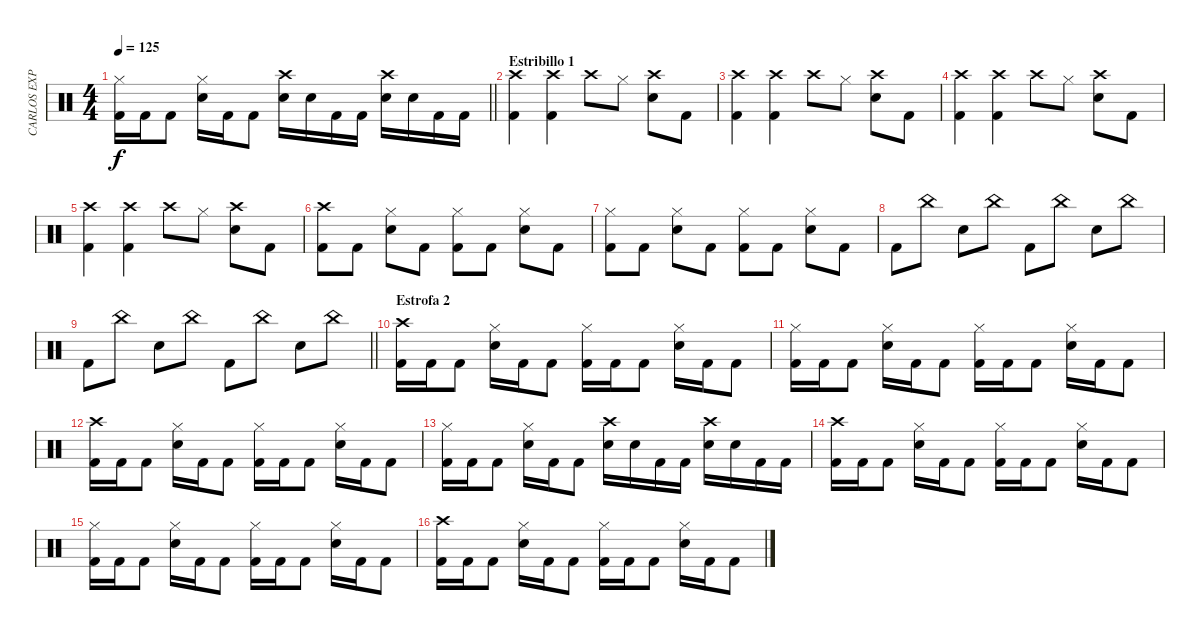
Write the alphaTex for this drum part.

\track ("CARLOS EXPÓSITO" "CARLOS EXP") {instrument percussion}
\staff {score}
\articulation defaults
\ts (4 4)
\tempo 125
\clef neutral
\barLineRight lightlight
\ks c
("Kick (hit) 2" "Hi-Hat (closed)").16{dy f} "Kick (hit) 2".16 "Kick (hit) 2".8 ("Snare (hit) 2" "Hi-Hat (closed)").16 "Kick (hit) 2".16 "Kick (hit) 2".8 ("Snare (hit) 2" "Crash high (hit)").16 "Snare (hit) 2".16 "Kick (hit) 2".16 "Kick (hit) 2".16 ("Snare (hit) 2" "Crash high (hit)").16 "Snare (hit) 2".16 "Kick (hit) 2".16 "Kick (hit) 2".16 |
\section ("" "Estribillo 1")
("Crash high (hit)" "Kick (hit) 2").4 ("Kick (hit) 2" "Crash high (hit)").4 "Crash high (hit)".8 "Hi-Hat (closed)".8 ("Crash high (hit)" "Snare (hit) 2").8 "Kick (hit) 2".8 |
("Crash high (hit)" "Kick (hit) 2").4 ("Kick (hit) 2" "Crash high (hit)").4 "Crash high (hit)".8 "Hi-Hat (closed)".8 ("Crash high (hit)" "Snare (hit) 2").8 "Kick (hit) 2".8 |
("Crash high (hit)" "Kick (hit) 2").4 ("Kick (hit) 2" "Crash high (hit)").4 "Crash high (hit)".8 "Hi-Hat (closed)".8 ("Crash high (hit)" "Snare (hit) 2").8 "Kick (hit) 2".8 |
("Crash high (hit)" "Kick (hit) 2").4 ("Kick (hit) 2" "Crash high (hit)").4 "Crash high (hit)".8 "Hi-Hat (closed)".8 ("Crash high (hit)" "Snare (hit) 2").8 "Kick (hit) 2".8 |
("Crash high (hit)" "Kick (hit) 2").8 "Kick (hit) 2".8 ("Hi-Hat (closed)" "Snare (hit) 2").8 "Kick (hit) 2".8 ("Hi-Hat (closed)" "Kick (hit) 2").8 "Kick (hit) 2".8 ("Hi-Hat (closed)" "Snare (hit) 2").8 "Kick (hit) 2".8 |
("Hi-Hat (closed)" "Kick (hit) 2").8 "Kick (hit) 2".8 ("Hi-Hat (closed)" "Snare (hit) 2").8 "Kick (hit) 2".8 ("Hi-Hat (closed)" "Kick (hit) 2").8 "Kick (hit) 2".8 ("Hi-Hat (closed)" "Snare (hit) 2").8 "Kick (hit) 2".8 |
"Kick (hit) 2".8 "China (hit)".8 "Snare (hit) 2".8 "China (hit)".8 "Kick (hit) 2".8 "China (hit)".8 "Snare (hit) 2".8 "China (hit)".8 |
\barLineRight lightlight "Kick (hit) 2".8 "China (hit)".8 "Snare (hit) 2".8 "China (hit)".8 "Kick (hit) 2".8 "China (hit)".8 "Snare (hit) 2".8 "China (hit)".8
|
\section ("" "Estrofa 2")
("Kick (hit) 2" "Crash high (hit)").16 "Kick (hit) 2".16 "Kick (hit) 2".8 ("Snare (hit) 2" "Hi-Hat (closed)").16 "Kick (hit) 2".16 "Kick (hit) 2".8 ("Kick (hit) 2" "Hi-Hat (closed)").16 "Kick (hit) 2".16 "Kick (hit) 2".8 ("Snare (hit) 2" "Hi-Hat (closed)").16 "Kick (hit) 2".16 "Kick (hit) 2".8 |
("Kick (hit) 2" "Hi-Hat (closed)").16 "Kick (hit) 2".16 "Kick (hit) 2".8 ("Snare (hit) 2" "Hi-Hat (closed)").16 "Kick (hit) 2".16 "Kick (hit) 2".8 ("Kick (hit) 2" "Hi-Hat (closed)").16 "Kick (hit) 2".16 "Kick (hit) 2".8 ("Snare (hit) 2" "Hi-Hat (closed)").16 "Kick (hit) 2".16 "Kick (hit) 2".8 |
("Kick (hit) 2" "Crash high (hit)").16 "Kick (hit) 2".16 "Kick (hit) 2".8 ("Snare (hit) 2" "Hi-Hat (closed)").16 "Kick (hit) 2".16 "Kick (hit) 2".8 ("Kick (hit) 2" "Hi-Hat (closed)").16 "Kick (hit) 2".16 "Kick (hit) 2".8 ("Snare (hit) 2" "Hi-Hat (closed)").16 "Kick (hit) 2".16 "Kick (hit) 2".8 |
("Kick (hit) 2" "Hi-Hat (closed)").16 "Kick (hit) 2".16 "Kick (hit) 2".8 ("Snare (hit) 2" "Hi-Hat (closed)").16 "Kick (hit) 2".16 "Kick (hit) 2".8 ("Snare (hit) 2" "Crash high (hit)").16 "Snare (hit) 2".16 "Kick (hit) 2".16 "Kick (hit) 2".16 ("Snare (hit) 2" "Crash high (hit)").16 "Snare (hit) 2".16 "Kick (hit) 2".16 "Kick (hit) 2".16 |
("Kick (hit) 2" "Crash high (hit)").16 "Kick (hit) 2".16 "Kick (hit) 2".8 ("Snare (hit) 2" "Hi-Hat (closed)").16 "Kick (hit) 2".16 "Kick (hit) 2".8 ("Kick (hit) 2" "Hi-Hat (closed)").16 "Kick (hit) 2".16 "Kick (hit) 2".8 ("Snare (hit) 2" "Hi-Hat (closed)").16 "Kick (hit) 2".16 "Kick (hit) 2".8 |
("Kick (hit) 2" "Hi-Hat (closed)").16 "Kick (hit) 2".16 "Kick (hit) 2".8 ("Snare (hit) 2" "Hi-Hat (closed)").16 "Kick (hit) 2".16 "Kick (hit) 2".8 ("Kick (hit) 2" "Hi-Hat (closed)").16 "Kick (hit) 2".16 "Kick (hit) 2".8 ("Snare (hit) 2" "Hi-Hat (closed)").16 "Kick (hit) 2".16 "Kick (hit) 2".8 |
("Kick (hit) 2" "Crash high (hit)").16 "Kick (hit) 2".16 "Kick (hit) 2".8 ("Snare (hit) 2" "Hi-Hat (closed)").16 "Kick (hit) 2".16 "Kick (hit) 2".8 ("Kick (hit) 2" "Hi-Hat (closed)").16 "Kick (hit) 2".16 "Kick (hit) 2".8 ("Snare (hit) 2" "Hi-Hat (closed)").16 "Kick (hit) 2".16 "Kick (hit) 2".8
